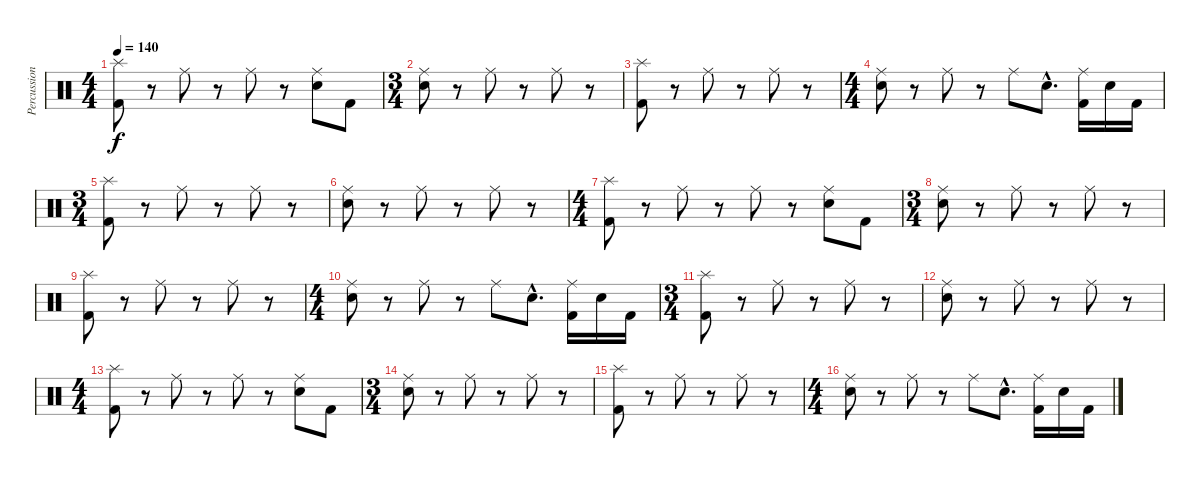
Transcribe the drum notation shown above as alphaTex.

\track ("Percussion" "Percussion") {instrument percussion}
\staff {score}
\articulation defaults
\ts (4 4)
\tempo 140
\clef neutral
\ks c
("Splash (hit)" "Kick (hit) 2").8{dy f} r.8 "Ride (middle)".8 r.8 "Ride (middle)".8 r.8 ("Ride (middle)" "Electric Snare (hit)").8 "Kick (hit) 2".8 |
\ts (3 4)
("Ride (middle)" "Electric Snare (hit)").8 r.8 "Ride (middle)".8 r.8 "Ride (middle)".8 r.8 |
("Splash (hit)" "Kick (hit) 2").8 r.8 "Ride (middle)".8 r.8 "Ride (middle)".8 r.8 |
\ts (4 4)
("Ride (middle)" "Electric Snare (hit)").8 r.8 "Ride (middle)".8 r.8 "Ride (middle)".8 "Electric Snare (hit)"{hac}.8{d} ("Ride (middle)" "Kick (hit) 2").16 "Electric Snare (hit)".16 "Kick (hit) 2".16 |
\ts (3 4)
("Splash (hit)" "Kick (hit) 2").8 r.8 "Ride (middle)".8 r.8 "Ride (middle)".8 r.8 |
("Ride (middle)" "Electric Snare (hit)").8 r.8 "Ride (middle)".8 r.8 "Ride (middle)".8 r.8 |
\ts (4 4)
("Splash (hit)" "Kick (hit) 2").8 r.8 "Ride (middle)".8 r.8 "Ride (middle)".8 r.8 ("Ride (middle)" "Electric Snare (hit)").8 "Kick (hit) 2".8 |
\ts (3 4)
("Ride (middle)" "Electric Snare (hit)").8 r.8 "Ride (middle)".8 r.8 "Ride (middle)".8 r.8 |
("Splash (hit)" "Kick (hit) 2").8 r.8 "Ride (middle)".8 r.8 "Ride (middle)".8 r.8 |
\ts (4 4)
("Ride (middle)" "Electric Snare (hit)").8 r.8 "Ride (middle)".8 r.8 "Ride (middle)".8 "Electric Snare (hit)"{hac}.8{d} ("Ride (middle)" "Kick (hit) 2").16 "Electric Snare (hit)".16 "Kick (hit) 2".16 |
\ts (3 4)
("Splash (hit)" "Kick (hit) 2").8 r.8 "Ride (middle)".8 r.8 "Ride (middle)".8 r.8 |
("Ride (middle)" "Electric Snare (hit)").8 r.8 "Ride (middle)".8 r.8 "Ride (middle)".8 r.8 |
\ts (4 4)
("Splash (hit)" "Kick (hit) 2").8 r.8 "Ride (middle)".8 r.8 "Ride (middle)".8 r.8 ("Ride (middle)" "Electric Snare (hit)").8 "Kick (hit) 2".8 |
\ts (3 4)
("Ride (middle)" "Electric Snare (hit)").8 r.8 "Ride (middle)".8 r.8 "Ride (middle)".8 r.8 |
("Splash (hit)" "Kick (hit) 2").8 r.8 "Ride (middle)".8 r.8 "Ride (middle)".8 r.8 |
\ts (4 4)
("Ride (middle)" "Electric Snare (hit)").8 r.8 "Ride (middle)".8 r.8 "Ride (middle)".8 "Electric Snare (hit)"{hac}.8{d} ("Ride (middle)" "Kick (hit) 2").16 "Electric Snare (hit)".16 "Kick (hit) 2".16
